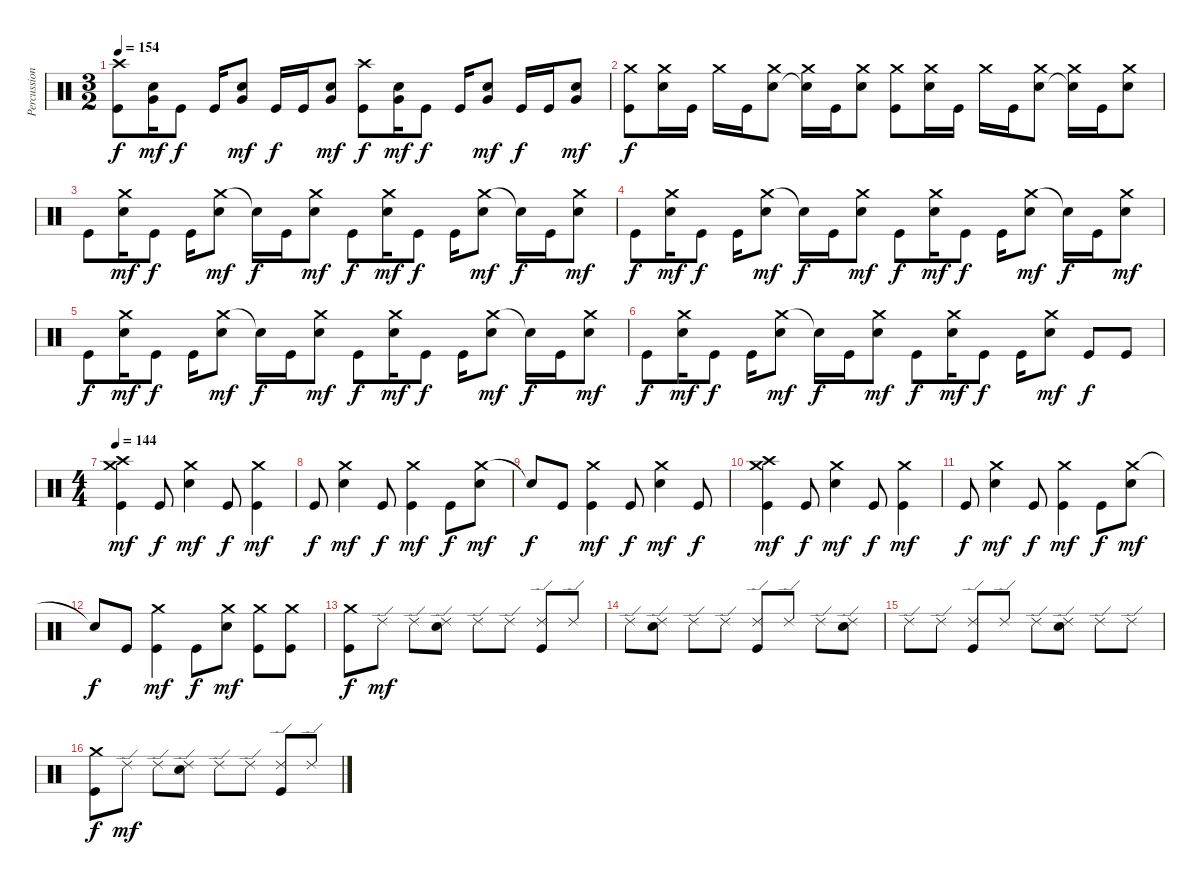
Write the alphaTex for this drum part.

\track ("Percussion" "Percussion") {instrument percussion}
\staff {score}
\articulation defaults
\ts (3 2)
\tempo 154
\clef neutral
\ks c
("Crash high (hit)" "Kick (hit)").8{dy f} ("Very Low Tom (hit)" "Electric Snare (hit)").16{dy mf} "Kick (hit)".8{dy f} "Kick (hit)".16 ("Very Low Tom (hit)" "Electric Snare (hit)").8{dy mf} "Kick (hit)".16{dy f} "Kick (hit)".16 ("Very Low Tom (hit)" "Electric Snare (hit)").8{dy mf} ("Crash high (hit)" "Kick (hit)").8{dy f} ("Very Low Tom (hit)" "Electric Snare (hit)").16{dy mf} "Kick (hit)".8{dy f} "Kick (hit)".16 ("Very Low Tom (hit)" "Electric Snare (hit)").8{dy mf} "Kick (hit)".16{dy f} "Kick (hit)".16 ("Very Low Tom (hit)" "Electric Snare (hit)").8{dy mf} |
("Crash medium (hit)" "Kick (hit)").8{dy f} ("Crash medium (hit)" "Electric Snare (hit)").16 "Kick (hit)".16 "Crash medium (hit)".16 "Kick (hit)".16 ("Crash medium (hit)" "Electric Snare (hit)").8 ("Crash medium (hit)" "Snare (hit)"{t}).16 "Kick (hit)".16 ("Crash medium (hit)" "Electric Snare (hit)").8 ("Crash medium (hit)" "Kick (hit)").8 ("Crash medium (hit)" "Electric Snare (hit)").16 "Kick (hit)".16 "Crash medium (hit)".16 "Kick (hit)".16 ("Crash medium (hit)" "Electric Snare (hit)").8 ("Crash medium (hit)" "Snare (hit)"{t}).16 "Kick (hit)".16 ("Crash medium (hit)" "Electric Snare (hit)").8 |
"Kick (hit)".8 ("Crash medium (hit)" "Electric Snare (hit)").16{dy mf} "Kick (hit)".8{dy f} "Kick (hit)".16 ("Crash medium (hit)" "Electric Snare (hit)").8{dy mf} "Snare (hit)"{t}.16{dy f} "Kick (hit)".16 ("Crash medium (hit)" "Electric Snare (hit)").8{dy mf} "Kick (hit)".8{dy f} ("Crash medium (hit)" "Electric Snare (hit)").16{dy mf} "Kick (hit)".8{dy f} "Kick (hit)".16 ("Crash medium (hit)" "Electric Snare (hit)").8{dy mf} "Snare (hit)"{t}.16{dy f} "Kick (hit)".16 ("Crash medium (hit)" "Electric Snare (hit)").8{dy mf} |
"Kick (hit)".8{dy f} ("Crash medium (hit)" "Electric Snare (hit)").16{dy mf} "Kick (hit)".8{dy f} "Kick (hit)".16 ("Crash medium (hit)" "Electric Snare (hit)").8{dy mf} "Snare (hit)"{t}.16{dy f} "Kick (hit)".16 ("Crash medium (hit)" "Electric Snare (hit)").8{dy mf} "Kick (hit)".8{dy f} ("Crash medium (hit)" "Electric Snare (hit)").16{dy mf} "Kick (hit)".8{dy f} "Kick (hit)".16 ("Crash medium (hit)" "Electric Snare (hit)").8{dy mf} "Snare (hit)"{t}.16{dy f} "Kick (hit)".16 ("Crash medium (hit)" "Electric Snare (hit)").8{dy mf} |
"Kick (hit)".8{dy f} ("Crash medium (hit)" "Electric Snare (hit)").16{dy mf} "Kick (hit)".8{dy f} "Kick (hit)".16 ("Crash medium (hit)" "Electric Snare (hit)").8{dy mf} "Snare (hit)"{t}.16{dy f} "Kick (hit)".16 ("Crash medium (hit)" "Electric Snare (hit)").8{dy mf} "Kick (hit)".8{dy f} ("Crash medium (hit)" "Electric Snare (hit)").16{dy mf} "Kick (hit)".8{dy f} "Kick (hit)".16 ("Crash medium (hit)" "Electric Snare (hit)").8{dy mf} "Snare (hit)"{t}.16{dy f} "Kick (hit)".16 ("Crash medium (hit)" "Electric Snare (hit)").8{dy mf} |
"Kick (hit)".8{dy f} ("Crash medium (hit)" "Electric Snare (hit)").16{dy mf} "Kick (hit)".8{dy f} "Kick (hit)".16 ("Crash medium (hit)" "Electric Snare (hit)").8{dy mf} "Snare (hit)"{t}.16{dy f} "Kick (hit)".16 ("Crash medium (hit)" "Electric Snare (hit)").8{dy mf} "Kick (hit)".8{dy f} ("Crash medium (hit)" "Electric Snare (hit)").16{dy mf} "Kick (hit)".8{dy f} "Kick (hit)".16 ("Crash medium (hit)" "Electric Snare (hit)").8{dy mf} "Kick (hit)".8{dy f} "Kick (hit)".8 |
\ts (4 4)
\tempo 144
("Crash medium (hit)" "Crash high (hit)" "Kick (hit)").4{dy mf} "Kick (hit)".8{dy f} ("Crash medium (hit)" "Electric Snare (hit)").4{dy mf} "Kick (hit)".8{dy f} ("Crash medium (hit)" "Kick (hit)").4{dy mf} |
"Kick (hit)".8{dy f} ("Crash medium (hit)" "Electric Snare (hit)").4{dy mf} "Kick (hit)".8{dy f} ("Crash medium (hit)" "Kick (hit)").4{dy mf} "Kick (hit)".8{dy f} ("Crash medium (hit)" "Electric Snare (hit)").8{dy mf} |
"Snare (hit)"{t}.8{dy f} "Kick (hit)".8 ("Crash medium (hit)" "Kick (hit)").4{dy mf} "Kick (hit)".8{dy f} ("Crash medium (hit)" "Electric Snare (hit)").4{dy mf} "Kick (hit)".8{dy f} |
("Crash medium (hit)" "Crash high (hit)" "Kick (hit)").4{dy mf} "Kick (hit)".8{dy f} ("Crash medium (hit)" "Electric Snare (hit)").4{dy mf} "Kick (hit)".8{dy f} ("Crash medium (hit)" "Kick (hit)").4{dy mf} |
"Kick (hit)".8{dy f} ("Crash medium (hit)" "Electric Snare (hit)").4{dy mf} "Kick (hit)".8{dy f} ("Crash medium (hit)" "Kick (hit)").4{dy mf} "Kick (hit)".8{dy f} ("Crash medium (hit)" "Electric Snare (hit)").8{dy mf} |
"Snare (hit)"{t}.8{dy f} "Kick (hit)".8 ("Crash medium (hit)" "Kick (hit)").4{dy mf} "Kick (hit)".8{dy f} ("Crash medium (hit)" "Electric Snare (hit)").8{dy mf} ("Crash medium (hit)" "Kick (hit)").8 ("Crash medium (hit)" "Kick (hit)").8 |
("Crash medium (hit)" "Kick (hit)").8{dy f} "Ride (edge) 2".8{dy mf} "Ride (edge) 2".8 ("Ride (edge) 2" "Electric Snare (hit)").8 "Ride (edge) 2".8 "Ride (edge) 2".8 ("Ride (edge) 2" "Kick (hit)").8 "Ride (edge) 2".8 |
"Ride (edge) 2".8 ("Ride (edge) 2" "Electric Snare (hit)").8 "Ride (edge) 2".8 "Ride (edge) 2".8 ("Ride (edge) 2" "Kick (hit)").8 "Ride (edge) 2".8 "Ride (edge) 2".8 ("Ride (edge) 2" "Electric Snare (hit)").8 |
"Ride (edge) 2".8 "Ride (edge) 2".8 ("Ride (edge) 2" "Kick (hit)").8 "Ride (edge) 2".8 "Ride (edge) 2".8 ("Ride (edge) 2" "Electric Snare (hit)").8 "Ride (edge) 2".8 "Ride (edge) 2".8 |
("Crash medium (hit)" "Kick (hit)").8{dy f} "Ride (edge) 2".8{dy mf} "Ride (edge) 2".8 ("Ride (edge) 2" "Electric Snare (hit)").8 "Ride (edge) 2".8 "Ride (edge) 2".8 ("Ride (edge) 2" "Kick (hit)").8 "Ride (edge) 2".8
